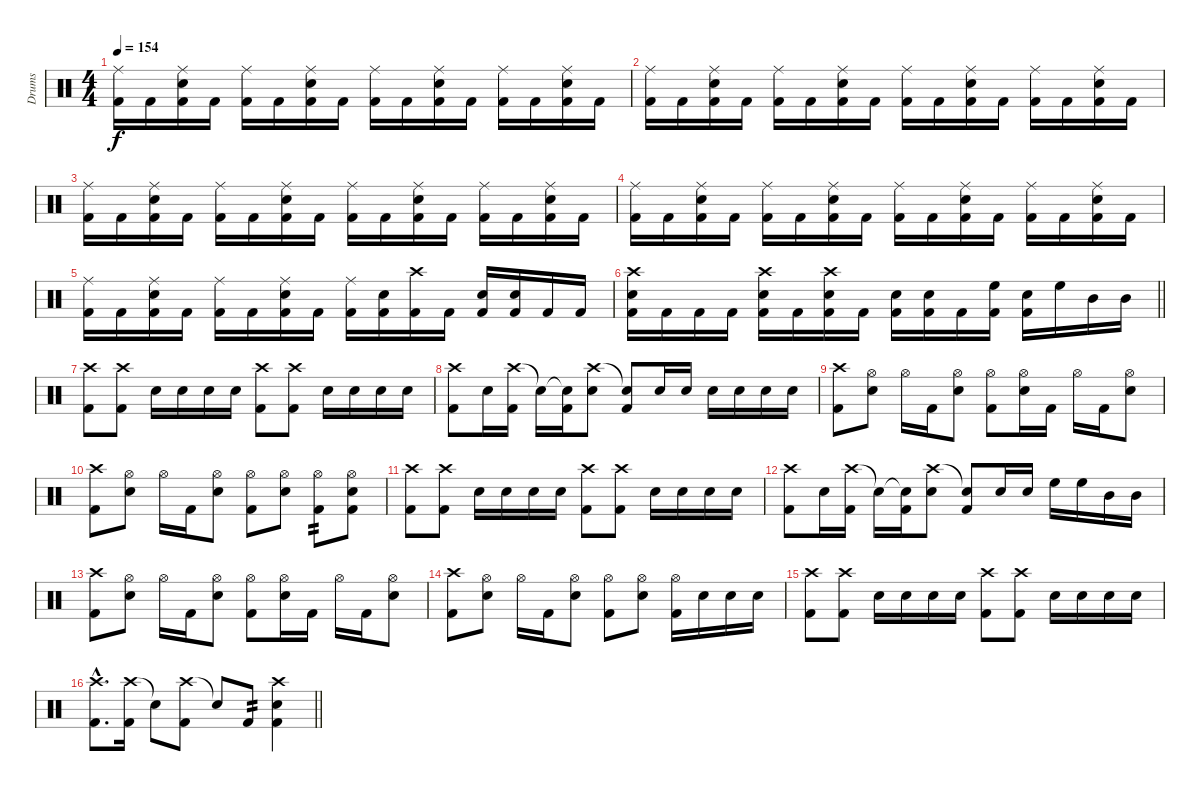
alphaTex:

\track ("Drums" "Drums") {instrument percussion}
\staff {score}
\articulation defaults
\ts (4 4)
\tempo 154
\clef neutral
\ks c
("Ride (middle)" "Kick (hit) 2").16{dy f} "Kick (hit) 2".16 ("Ride (middle)" "Snare (hit) 2" "Kick (hit) 2").16 "Kick (hit) 2".16 ("Ride (middle)" "Kick (hit) 2").16 "Kick (hit) 2".16 ("Ride (middle)" "Snare (hit) 2" "Kick (hit) 2").16 "Kick (hit) 2".16 ("Ride (middle)" "Kick (hit) 2").16 "Kick (hit) 2".16 ("Ride (middle)" "Snare (hit) 2" "Kick (hit) 2").16 "Kick (hit) 2".16 ("Ride (middle)" "Kick (hit) 2").16 "Kick (hit) 2".16 ("Ride (middle)" "Snare (hit) 2" "Kick (hit) 2").16 "Kick (hit) 2".16 |
("Ride (middle)" "Kick (hit) 2").16 "Kick (hit) 2".16 ("Ride (middle)" "Snare (hit) 2" "Kick (hit) 2").16 "Kick (hit) 2".16 ("Ride (middle)" "Kick (hit) 2").16 "Kick (hit) 2".16 ("Ride (middle)" "Snare (hit) 2" "Kick (hit) 2").16 "Kick (hit) 2".16 ("Ride (middle)" "Kick (hit) 2").16 "Kick (hit) 2".16 ("Ride (middle)" "Snare (hit) 2" "Kick (hit) 2").16 "Kick (hit) 2".16 ("Ride (middle)" "Kick (hit) 2").16 "Kick (hit) 2".16 ("Ride (middle)" "Snare (hit) 2" "Kick (hit) 2").16 "Kick (hit) 2".16 |
("Ride (middle)" "Kick (hit) 2").16 "Kick (hit) 2".16 ("Ride (middle)" "Snare (hit) 2" "Kick (hit) 2").16 "Kick (hit) 2".16 ("Ride (middle)" "Kick (hit) 2").16 "Kick (hit) 2".16 ("Ride (middle)" "Snare (hit) 2" "Kick (hit) 2").16 "Kick (hit) 2".16 ("Ride (middle)" "Kick (hit) 2").16 "Kick (hit) 2".16 ("Ride (middle)" "Snare (hit) 2" "Kick (hit) 2").16 "Kick (hit) 2".16 ("Ride (middle)" "Kick (hit) 2").16 "Kick (hit) 2".16 ("Ride (middle)" "Snare (hit) 2" "Kick (hit) 2").16 "Kick (hit) 2".16 |
("Ride (middle)" "Kick (hit) 2").16 "Kick (hit) 2".16 ("Ride (middle)" "Snare (hit) 2" "Kick (hit) 2").16 "Kick (hit) 2".16 ("Ride (middle)" "Kick (hit) 2").16 "Kick (hit) 2".16 ("Ride (middle)" "Snare (hit) 2" "Kick (hit) 2").16 "Kick (hit) 2".16 ("Ride (middle)" "Kick (hit) 2").16 "Kick (hit) 2".16 ("Ride (middle)" "Snare (hit) 2" "Kick (hit) 2").16 "Kick (hit) 2".16 ("Ride (middle)" "Kick (hit) 2").16 "Kick (hit) 2".16 ("Ride (middle)" "Snare (hit) 2" "Kick (hit) 2").16 "Kick (hit) 2".16 |
("Ride (middle)" "Kick (hit) 2").16 "Kick (hit) 2".16 ("Ride (middle)" "Snare (hit) 2" "Kick (hit) 2").16 "Kick (hit) 2".16 ("Ride (middle)" "Kick (hit) 2").16 "Kick (hit) 2".16 ("Ride (middle)" "Snare (hit) 2" "Kick (hit) 2").16 "Kick (hit) 2".16 ("Ride (middle)" "Kick (hit) 2").16 ("Snare (hit) 2" "Kick (hit) 2").16 ("Crash high (hit)" "Kick (hit) 2").16 "Kick (hit) 2".16 ("Snare (hit) 2" "Kick (hit) 2").16 ("Snare (hit) 2" "Kick (hit) 2").16 "Kick (hit) 2".16 "Kick (hit) 2".16 |
\barLineRight lightlight
("Crash high (hit)" "Snare (hit) 2" "Kick (hit) 2").16 "Kick (hit) 2".16 "Kick (hit) 2".16 "Kick (hit) 2".16 ("Crash high (hit)" "Snare (hit) 2" "Kick (hit) 2").16 "Kick (hit) 2".16 ("Crash high (hit)" "Snare (hit) 2" "Kick (hit) 2").16 "Kick (hit) 2".16 ("Snare (hit) 2" "Kick (hit) 2").16 ("Snare (hit) 2" "Kick (hit) 2").16 "Kick (hit) 2".16 ("High Floor Tom (hit)" "Kick (hit) 2").16 ("Snare (hit) 2" "Kick (hit) 2").16 "High Floor Tom (hit)".16 "Mid Tom (hit)".16 "Mid Tom (hit)".16 |
("Crash high (hit)" "Kick (hit) 2").8 ("Crash high (hit)" "Kick (hit) 2").8 "Snare (hit) 2".16 "Snare (hit) 2".16 "Snare (hit) 2".16 "Snare (hit) 2".16 ("Crash high (hit)" "Kick (hit) 2").8 ("Crash high (hit)" "Kick (hit) 2").8 "Snare (hit) 2".16 "Snare (hit) 2".16 "Snare (hit) 2".16 "Snare (hit) 2".16 |
("Crash high (hit)" "Kick (hit) 2").8 "Snare (hit) 2".16 ("Crash high (hit)" "Kick (hit) 2").16 "Snare (hit)"{t}.16 ("Snare (hit)"{t} "Kick (hit) 2").16 ("Crash high (hit)" "Snare (hit) 2").8 ("Snare (hit)"{t} "Kick (hit) 2").8 "Snare (hit) 2".16 "Snare (hit) 2".16 "Snare (hit) 2".16 "Snare (hit) 2".16 "Snare (hit) 2".16 "Snare (hit) 2".16 |
("Crash high (hit)" "Kick (hit) 2").8 ("Hi-Hat (open)" "Snare (hit) 2").8 "Hi-Hat (open)".16 "Kick (hit) 2".16 ("Hi-Hat (open)" "Snare (hit) 2").8 ("Hi-Hat (open)" "Kick (hit) 2").8 ("Hi-Hat (open)" "Snare (hit) 2").16 "Kick (hit) 2".16 "Hi-Hat (open)".16 "Kick (hit) 2".16 ("Hi-Hat (open)" "Snare (hit) 2").8 |
("Crash high (hit)" "Kick (hit) 2").8 ("Hi-Hat (open)" "Snare (hit) 2").8 "Hi-Hat (open)".16 "Kick (hit) 2".16 ("Hi-Hat (open)" "Snare (hit) 2").8 ("Hi-Hat (open)" "Kick (hit) 2").8 ("Hi-Hat (open)" "Snare (hit) 2").8 ("Hi-Hat (open)" "Kick (hit) 2").8{tp 2} ("Hi-Hat (open)" "Snare (hit) 2" "Kick (hit) 2").8 |
("Crash high (hit)" "Kick (hit) 2").8 ("Crash high (hit)" "Kick (hit) 2").8 "Snare (hit) 2".16 "Snare (hit) 2".16 "Snare (hit) 2".16 "Snare (hit) 2".16 ("Crash high (hit)" "Kick (hit) 2").8 ("Crash high (hit)" "Kick (hit) 2").8 "Snare (hit) 2".16 "Snare (hit) 2".16 "Snare (hit) 2".16 "Snare (hit) 2".16 |
("Crash high (hit)" "Kick (hit) 2").8 "Snare (hit) 2".16 ("Crash high (hit)" "Kick (hit) 2").16 "Snare (hit)"{t}.16 ("Snare (hit)"{t} "Kick (hit) 2").16 ("Crash high (hit)" "Snare (hit) 2").8 ("Snare (hit)"{t} "Kick (hit) 2").8 "Snare (hit) 2".16 "Snare (hit) 2".16 "High Floor Tom (hit)".16 "High Floor Tom (hit)".16 "Mid Tom (hit)".16 "Mid Tom (hit)".16 |
("Crash high (hit)" "Kick (hit) 2").8 ("Hi-Hat (open)" "Snare (hit) 2").8 "Hi-Hat (open)".16 "Kick (hit) 2".16 ("Hi-Hat (open)" "Snare (hit) 2").8 ("Hi-Hat (open)" "Kick (hit) 2").8 ("Hi-Hat (open)" "Snare (hit) 2").16 "Kick (hit) 2".16 "Hi-Hat (open)".16 "Kick (hit) 2".16 ("Hi-Hat (open)" "Snare (hit) 2").8 |
("Crash high (hit)" "Kick (hit) 2").8 ("Hi-Hat (open)" "Snare (hit) 2").8 "Hi-Hat (open)".16 "Kick (hit) 2".16 ("Hi-Hat (open)" "Snare (hit) 2").8 ("Hi-Hat (open)" "Kick (hit) 2").8 ("Hi-Hat (open)" "Snare (hit) 2").8 ("Hi-Hat (open)" "Kick (hit) 2").16 "Snare (hit) 2".16 "Snare (hit) 2".16 "Snare (hit) 2".16 |
("Crash high (hit)" "Kick (hit) 2").8 ("Crash high (hit)" "Kick (hit) 2").8 "Snare (hit) 2".16 "Snare (hit) 2".16 "Snare (hit) 2".16 "Snare (hit) 2".16 ("Crash high (hit)" "Kick (hit) 2").8 ("Crash high (hit)" "Kick (hit) 2").8 "Snare (hit) 2".16 "Snare (hit) 2".16 "Snare (hit) 2".16 "Snare (hit) 2".16 |
\barLineRight lightlight
("Crash high (hit)"{hac} "Kick (hit) 2"{hac}).8{d} ("Crash high (hit)" "Kick (hit) 2").16 "Snare (hit)"{t}.8 ("Crash high (hit)" "Kick (hit) 2").8 "Snare (hit)"{t}.8 "Kick (hit) 2".8{tp 2} ("Crash high (hit)" "Snare (hit) 2" "Kick (hit) 2").4
